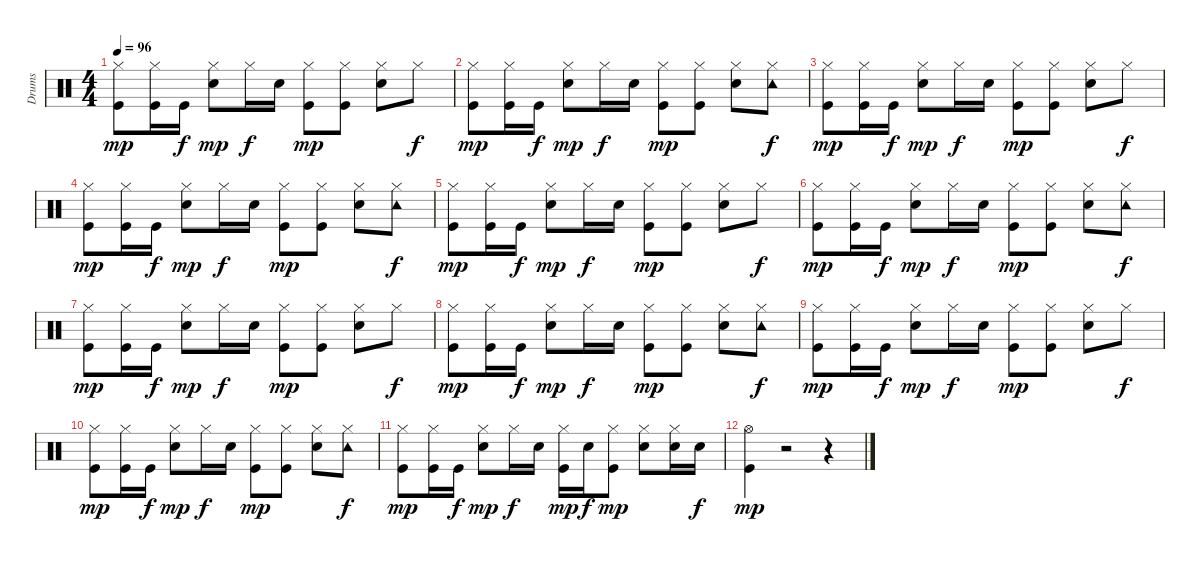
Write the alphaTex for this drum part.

\track ("Drums" "Drums") {instrument percussion}
\staff {score}
\articulation defaults
\ts (4 4)
\tempo 96
\clef neutral
\ks c
("Hi-Hat (closed)" "Kick (hit)").8{dy mp} ("Hi-Hat (closed)" "Kick (hit)").16 "Kick (hit)".16{dy f} ("Hi-Hat (closed)" "Electric Snare (hit)").8{dy mp} "Hi-Hat (closed)".16{dy f} "Electric Snare (hit)".16 ("Hi-Hat (closed)" "Kick (hit)").8{dy mp} ("Hi-Hat (closed)" "Kick (hit)").8 ("Hi-Hat (closed)" "Electric Snare (hit)").8 "Hi-Hat (closed)".8{dy f} |
("Hi-Hat (closed)" "Kick (hit)").8{dy mp} ("Hi-Hat (closed)" "Kick (hit)").16 "Kick (hit)".16{dy f} ("Hi-Hat (closed)" "Electric Snare (hit)").8{dy mp} "Hi-Hat (closed)".16{dy f} "Electric Snare (hit)".16 ("Hi-Hat (closed)" "Kick (hit)").8{dy mp} ("Hi-Hat (closed)" "Kick (hit)").8 ("Hi-Hat (closed)" "Electric Snare (hit)").8 ("Tambourine (hit)" "Hi-Hat (closed)").8{dy f} |
("Hi-Hat (closed)" "Kick (hit)").8{dy mp} ("Hi-Hat (closed)" "Kick (hit)").16 "Kick (hit)".16{dy f} ("Hi-Hat (closed)" "Electric Snare (hit)").8{dy mp} "Hi-Hat (closed)".16{dy f} "Electric Snare (hit)".16 ("Hi-Hat (closed)" "Kick (hit)").8{dy mp} ("Hi-Hat (closed)" "Kick (hit)").8 ("Hi-Hat (closed)" "Electric Snare (hit)").8 "Hi-Hat (closed)".8{dy f} |
("Hi-Hat (closed)" "Kick (hit)").8{dy mp} ("Hi-Hat (closed)" "Kick (hit)").16 "Kick (hit)".16{dy f} ("Hi-Hat (closed)" "Electric Snare (hit)").8{dy mp} "Hi-Hat (closed)".16{dy f} "Electric Snare (hit)".16 ("Hi-Hat (closed)" "Kick (hit)").8{dy mp} ("Hi-Hat (closed)" "Kick (hit)").8 ("Hi-Hat (closed)" "Electric Snare (hit)").8 ("Tambourine (hit)" "Hi-Hat (closed)").8{dy f} |
("Hi-Hat (closed)" "Kick (hit)").8{dy mp} ("Hi-Hat (closed)" "Kick (hit)").16 "Kick (hit)".16{dy f} ("Hi-Hat (closed)" "Electric Snare (hit)").8{dy mp} "Hi-Hat (closed)".16{dy f} "Electric Snare (hit)".16 ("Hi-Hat (closed)" "Kick (hit)").8{dy mp} ("Hi-Hat (closed)" "Kick (hit)").8 ("Hi-Hat (closed)" "Electric Snare (hit)").8 "Hi-Hat (closed)".8{dy f} |
("Hi-Hat (closed)" "Kick (hit)").8{dy mp} ("Hi-Hat (closed)" "Kick (hit)").16 "Kick (hit)".16{dy f} ("Hi-Hat (closed)" "Electric Snare (hit)").8{dy mp} "Hi-Hat (closed)".16{dy f} "Electric Snare (hit)".16 ("Hi-Hat (closed)" "Kick (hit)").8{dy mp} ("Hi-Hat (closed)" "Kick (hit)").8 ("Hi-Hat (closed)" "Electric Snare (hit)").8 ("Tambourine (hit)" "Hi-Hat (closed)").8{dy f} |
("Hi-Hat (closed)" "Kick (hit)").8{dy mp} ("Hi-Hat (closed)" "Kick (hit)").16 "Kick (hit)".16{dy f} ("Hi-Hat (closed)" "Electric Snare (hit)").8{dy mp} "Hi-Hat (closed)".16{dy f} "Electric Snare (hit)".16 ("Hi-Hat (closed)" "Kick (hit)").8{dy mp} ("Hi-Hat (closed)" "Kick (hit)").8 ("Hi-Hat (closed)" "Electric Snare (hit)").8 "Hi-Hat (closed)".8{dy f} |
("Hi-Hat (closed)" "Kick (hit)").8{dy mp} ("Hi-Hat (closed)" "Kick (hit)").16 "Kick (hit)".16{dy f} ("Hi-Hat (closed)" "Electric Snare (hit)").8{dy mp} "Hi-Hat (closed)".16{dy f} "Electric Snare (hit)".16 ("Hi-Hat (closed)" "Kick (hit)").8{dy mp} ("Hi-Hat (closed)" "Kick (hit)").8 ("Hi-Hat (closed)" "Electric Snare (hit)").8 ("Tambourine (hit)" "Hi-Hat (closed)").8{dy f} |
("Hi-Hat (closed)" "Kick (hit)").8{dy mp} ("Hi-Hat (closed)" "Kick (hit)").16 "Kick (hit)".16{dy f} ("Hi-Hat (closed)" "Electric Snare (hit)").8{dy mp} "Hi-Hat (closed)".16{dy f} "Electric Snare (hit)".16 ("Hi-Hat (closed)" "Kick (hit)").8{dy mp} ("Hi-Hat (closed)" "Kick (hit)").8 ("Hi-Hat (closed)" "Electric Snare (hit)").8 "Hi-Hat (closed)".8{dy f} |
("Hi-Hat (closed)" "Kick (hit)").8{dy mp} ("Hi-Hat (closed)" "Kick (hit)").16 "Kick (hit)".16{dy f} ("Hi-Hat (closed)" "Electric Snare (hit)").8{dy mp} "Hi-Hat (closed)".16{dy f} "Electric Snare (hit)".16 ("Hi-Hat (closed)" "Kick (hit)").8{dy mp} ("Hi-Hat (closed)" "Kick (hit)").8 ("Hi-Hat (closed)" "Electric Snare (hit)").8 ("Tambourine (hit)" "Hi-Hat (closed)").8{dy f} |
("Hi-Hat (closed)" "Kick (hit)").8{dy mp} ("Hi-Hat (closed)" "Kick (hit)").16 "Kick (hit)".16{dy f} ("Hi-Hat (closed)" "Electric Snare (hit)").8{dy mp} "Hi-Hat (closed)".16{dy f} "Electric Snare (hit)".16 ("Hi-Hat (closed)" "Kick (hit)").16{dy mp} "Electric Snare (hit)".16{dy f} ("Hi-Hat (closed)" "Kick (hit)").8{dy mp} ("Hi-Hat (closed)" "Electric Snare (hit)").8 ("Hi-Hat (closed)" "Electric Snare (hit)").16 "Electric Snare (hit)".16{dy f} |
("Hi-Hat (open)" "Kick (hit)").4{dy mp} r.2 r.4
